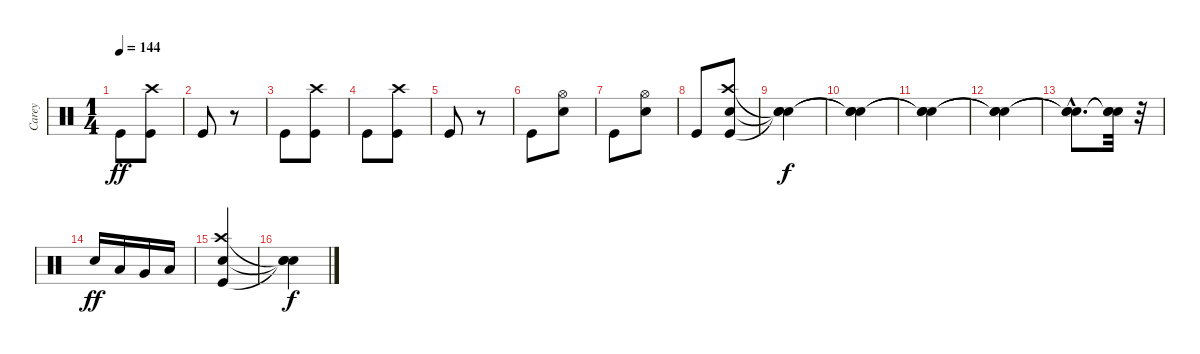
\track ("Carey" "Carey") {instrument percussion}
\staff {score}
\articulation defaults
\ts (1 4)
\tempo 144
\clef neutral
\ks c "Kick (hit)".8{dy ff}
("Kick (hit)" "Crash high (hit)").8 |
"Kick (hit)".8 r.8 |
"Kick (hit)".8 ("Kick (hit)" "Crash high (hit)").8 |
"Kick (hit)".8 ("Kick (hit)" "Crash high (hit)").8 |
"Kick (hit)".8 r.8 |
"Kick (hit)".8 ("Snare (hit) 2" "Hi-Hat (open)").8 |
"Kick (hit)".8 ("Snare (hit) 2" "Hi-Hat (open)").8 |
"Kick (hit)".8 ("Kick (hit)" "Snare (hit) 2" "Crash high (hit)").8 |
("Snare (hit)"{t} "Snare (hit)"{t} "Snare (hit)"{t}).4{dy f} |
("Snare (hit)"{t} "Snare (hit)"{t} "Snare (hit)"{t}).4 |
("Snare (hit)"{t} "Snare (hit)"{t} "Snare (hit)"{t}).4 |
("Snare (hit)"{t} "Snare (hit)"{t} "Snare (hit)"{t}).4 |
("Snare (hit)"{hac t} "Snare (hit)"{hac t} "Snare (hit)"{hac t}).8{d} ("Snare (hit)"{t} "Snare (hit)"{t} "Snare (hit)"{t}).32 r.32 |
"Snare (hit) 2".16{dy ff} "Low Tom (hit)".16 "Very Low Tom (hit)".16 "Low Floor Tom (hit)".16 |
("Kick (hit)" "Snare (hit) 2" "Crash high (hit)").4 |
("Snare (hit)"{t} "Snare (hit)"{t} "Snare (hit)"{t}).4{dy f}
